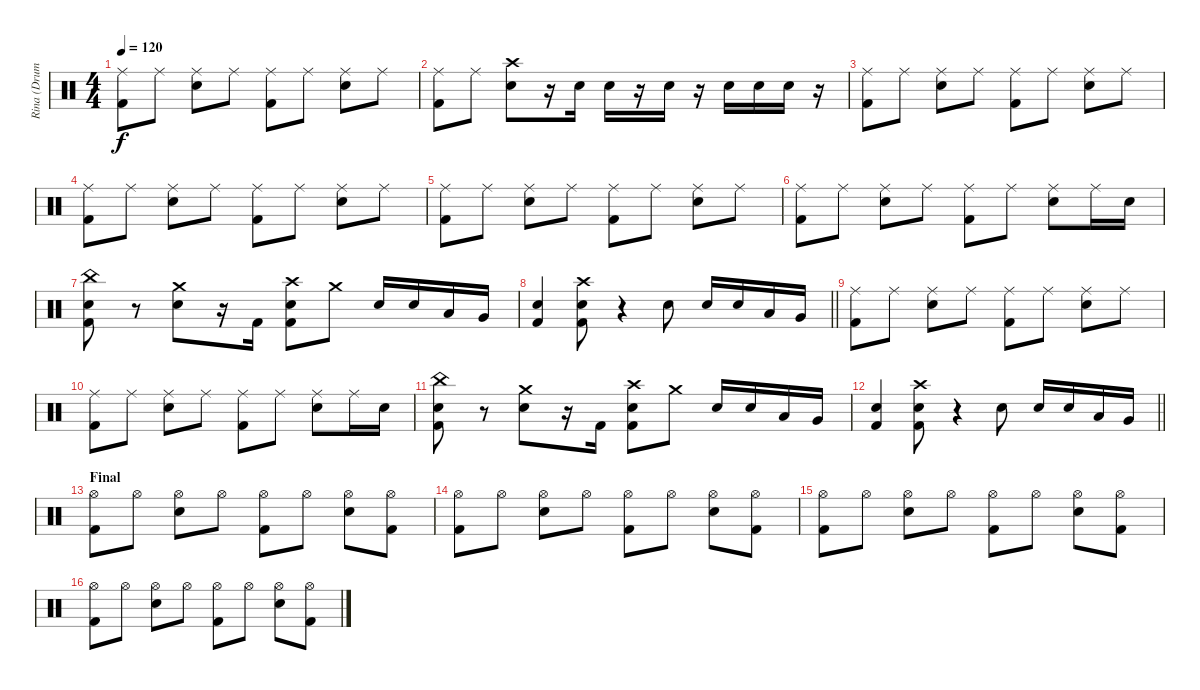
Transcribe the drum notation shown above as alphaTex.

\track ("Rina (Drums)" "Rina (Drum") {instrument percussion}
\staff {score}
\articulation defaults
\ts (4 4)
\tempo 120
\clef neutral
\ks c
("Ride (middle)" "Kick (hit) 2").8{dy f} "Ride (middle)".8 ("Ride (middle)" "Snare (hit) 2").8 "Ride (middle)".8 ("Ride (middle)" "Kick (hit) 2").8 "Ride (middle)".8 ("Ride (middle)" "Snare (hit) 2").8 "Ride (middle)".8 |
("Ride (middle)" "Kick (hit) 2").8 "Ride (middle)".8 ("Crash high (hit)" "Snare (hit) 2").8 r.16 "Snare (hit) 2".16 "Snare (hit) 2".16 r.16 "Snare (hit) 2".16 r.16 "Snare (hit) 2".16 "Snare (hit) 2".16 "Snare (hit) 2".16 r.16 |
("Ride (middle)" "Kick (hit) 2").8 "Ride (middle)".8 ("Ride (middle)" "Snare (hit) 2").8 "Ride (middle)".8 ("Ride (middle)" "Kick (hit) 2").8 "Ride (middle)".8 ("Ride (middle)" "Snare (hit) 2").8 "Ride (middle)".8 |
("Ride (middle)" "Kick (hit) 2").8 "Ride (middle)".8 ("Ride (middle)" "Snare (hit) 2").8 "Ride (middle)".8 ("Ride (middle)" "Kick (hit) 2").8 "Ride (middle)".8 ("Ride (middle)" "Snare (hit) 2").8 "Ride (middle)".8 |
("Ride (middle)" "Kick (hit) 2").8 "Ride (middle)".8 ("Ride (middle)" "Snare (hit) 2").8 "Ride (middle)".8 ("Ride (middle)" "Kick (hit) 2").8 "Ride (middle)".8 ("Ride (middle)" "Snare (hit) 2").8 "Ride (middle)".8 |
("Ride (middle)" "Kick (hit) 2").8 "Ride (middle)".8 ("Ride (middle)" "Snare (hit) 2").8 "Ride (middle)".8 ("Ride (middle)" "Kick (hit) 2").8 "Ride (middle)".8 ("Ride (middle)" "Snare (hit) 2").8 "Ride (middle)".16 "Snare (hit) 2".16 |
("China (hit)" "Snare (hit) 2" "Kick (hit) 2").8 r.8 ("Crash medium (hit)" "Snare (hit) 2").8 r.16 "Kick (hit) 2".16 ("Crash high (hit)" "Snare (hit) 2" "Kick (hit) 2").8 "Crash medium (hit)".8 "Snare (hit) 2".16 "Snare (hit) 2".16 "Low Tom (hit)".16 "Very Low Tom (hit)".16 |
\barLineRight lightlight
("Snare (hit) 2" "Kick (hit) 2").4 ("Crash high (hit)" "Snare (hit) 2" "Kick (hit) 2").8 r.4 "Snare (hit) 2".8 "Snare (hit) 2".16 "Snare (hit) 2".16 "Low Tom (hit)".16 "Very Low Tom (hit)".16 |
("Ride (middle)" "Kick (hit) 2").8 "Ride (middle)".8 ("Ride (middle)" "Snare (hit) 2").8 "Ride (middle)".8 ("Ride (middle)" "Kick (hit) 2").8 "Ride (middle)".8 ("Ride (middle)" "Snare (hit) 2").8 "Ride (middle)".8 |
("Ride (middle)" "Kick (hit) 2").8 "Ride (middle)".8 ("Ride (middle)" "Snare (hit) 2").8 "Ride (middle)".8 ("Ride (middle)" "Kick (hit) 2").8 "Ride (middle)".8 ("Ride (middle)" "Snare (hit) 2").8 "Ride (middle)".16 "Snare (hit) 2".16 |
("China (hit)" "Snare (hit) 2" "Kick (hit) 2").8 r.8 ("Crash medium (hit)" "Snare (hit) 2").8 r.16 "Kick (hit) 2".16 ("Crash high (hit)" "Snare (hit) 2" "Kick (hit) 2").8 "Crash medium (hit)".8 "Snare (hit) 2".16 "Snare (hit) 2".16 "Low Tom (hit)".16 "Very Low Tom (hit)".16 |
\barLineRight lightlight
("Snare (hit) 2" "Kick (hit) 2").4 ("Crash high (hit)" "Snare (hit) 2" "Kick (hit) 2").8 r.4 "Snare (hit) 2".8 "Snare (hit) 2".16 "Snare (hit) 2".16 "Low Tom (hit)".16 "Very Low Tom (hit)".16 |
\section ("" "Final")
("Hi-Hat (open)" "Kick (hit) 2").8 "Hi-Hat (open)".8 ("Hi-Hat (open)" "Snare (hit) 2").8 "Hi-Hat (open)".8 ("Hi-Hat (open)" "Kick (hit) 2").8 "Hi-Hat (open)".8 ("Hi-Hat (open)" "Snare (hit) 2").8 ("Hi-Hat (open)" "Kick (hit) 2").8 |
("Hi-Hat (open)" "Kick (hit) 2").8 "Hi-Hat (open)".8 ("Hi-Hat (open)" "Snare (hit) 2").8 "Hi-Hat (open)".8 ("Hi-Hat (open)" "Kick (hit) 2").8 "Hi-Hat (open)".8 ("Hi-Hat (open)" "Snare (hit) 2").8 ("Hi-Hat (open)" "Kick (hit) 2").8 |
("Hi-Hat (open)" "Kick (hit) 2").8 "Hi-Hat (open)".8 ("Hi-Hat (open)" "Snare (hit) 2").8 "Hi-Hat (open)".8 ("Hi-Hat (open)" "Kick (hit) 2").8 "Hi-Hat (open)".8 ("Hi-Hat (open)" "Snare (hit) 2").8 ("Hi-Hat (open)" "Kick (hit) 2").8 |
("Hi-Hat (open)" "Kick (hit) 2").8 "Hi-Hat (open)".8 ("Hi-Hat (open)" "Snare (hit) 2").8 "Hi-Hat (open)".8 ("Hi-Hat (open)" "Kick (hit) 2").8 "Hi-Hat (open)".8 ("Hi-Hat (open)" "Snare (hit) 2").8 ("Hi-Hat (open)" "Kick (hit) 2").8
